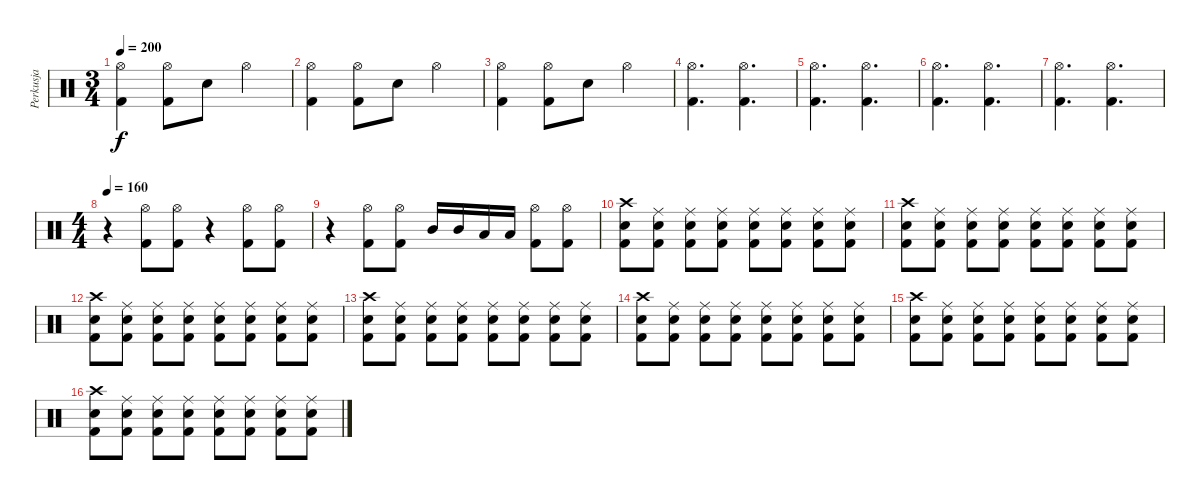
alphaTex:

\track ("Perkusja" "Perkusja") {instrument percussion}
\staff {score}
\articulation defaults
\ts (3 4)
\tempo 200
\clef neutral
\ks c
("Hi-Hat (open)" "Kick (hit) 2").4{dy f} ("Hi-Hat (open)" "Kick (hit) 2").8 "Electric Snare (hit)".8 "Hi-Hat (open)".4 |
("Hi-Hat (open)" "Kick (hit) 2").4 ("Hi-Hat (open)" "Kick (hit) 2").8 "Electric Snare (hit)".8 "Hi-Hat (open)".4 |
("Hi-Hat (open)" "Kick (hit) 2").4 ("Hi-Hat (open)" "Kick (hit) 2").8 "Electric Snare (hit)".8 "Hi-Hat (open)".4 |
("Hi-Hat (open)" "Kick (hit) 2").4{d} ("Hi-Hat (open)" "Kick (hit) 2").4{d} |
("Hi-Hat (open)" "Kick (hit) 2").4{d} ("Hi-Hat (open)" "Kick (hit) 2").4{d} |
("Hi-Hat (open)" "Kick (hit) 2").4{d} ("Hi-Hat (open)" "Kick (hit) 2").4{d} |
("Hi-Hat (open)" "Kick (hit) 2").4{d} ("Hi-Hat (open)" "Kick (hit) 2").4{d} |
\ts (4 4)
\tempo 160
r.4 ("Hi-Hat (open)" "Kick (hit) 2").8 ("Hi-Hat (open)" "Kick (hit) 2").8 r.4 ("Hi-Hat (open)" "Kick (hit) 2").8 ("Hi-Hat (open)" "Kick (hit) 2").8 |
r.4 ("Hi-Hat (open)" "Kick (hit) 2").8 ("Hi-Hat (open)" "Kick (hit) 2").8 "Mid Tom (hit)".16 "Mid Tom (hit)".16 "Low Tom (hit)".16 "Low Tom (hit)".16 ("Hi-Hat (open)" "Kick (hit) 2").8 ("Hi-Hat (open)" "Kick (hit) 2").8 |
("Crash high (hit)" "Electric Snare (hit)" "Kick (hit) 2").8 ("Ride (middle)" "Electric Snare (hit)" "Kick (hit) 2").8 ("Ride (middle)" "Electric Snare (hit)" "Kick (hit) 2").8 ("Ride (middle)" "Electric Snare (hit)" "Kick (hit) 2").8 ("Ride (middle)" "Electric Snare (hit)" "Kick (hit) 2").8 ("Ride (middle)" "Electric Snare (hit)" "Kick (hit) 2").8 ("Ride (middle)" "Electric Snare (hit)" "Kick (hit) 2").8 ("Ride (middle)" "Electric Snare (hit)" "Kick (hit) 2").8 |
("Crash high (hit)" "Electric Snare (hit)" "Kick (hit) 2").8 ("Ride (middle)" "Electric Snare (hit)" "Kick (hit) 2").8 ("Ride (middle)" "Electric Snare (hit)" "Kick (hit) 2").8 ("Ride (middle)" "Electric Snare (hit)" "Kick (hit) 2").8 ("Ride (middle)" "Electric Snare (hit)" "Kick (hit) 2").8 ("Ride (middle)" "Electric Snare (hit)" "Kick (hit) 2").8 ("Ride (middle)" "Electric Snare (hit)" "Kick (hit) 2").8 ("Ride (middle)" "Electric Snare (hit)" "Kick (hit) 2").8 |
("Crash high (hit)" "Electric Snare (hit)" "Kick (hit) 2").8 ("Ride (middle)" "Electric Snare (hit)" "Kick (hit) 2").8 ("Ride (middle)" "Electric Snare (hit)" "Kick (hit) 2").8 ("Ride (middle)" "Electric Snare (hit)" "Kick (hit) 2").8 ("Ride (middle)" "Electric Snare (hit)" "Kick (hit) 2").8 ("Ride (middle)" "Electric Snare (hit)" "Kick (hit) 2").8 ("Ride (middle)" "Electric Snare (hit)" "Kick (hit) 2").8 ("Ride (middle)" "Electric Snare (hit)" "Kick (hit) 2").8 |
("Crash high (hit)" "Electric Snare (hit)" "Kick (hit) 2").8 ("Ride (middle)" "Electric Snare (hit)" "Kick (hit) 2").8 ("Ride (middle)" "Electric Snare (hit)" "Kick (hit) 2").8 ("Ride (middle)" "Electric Snare (hit)" "Kick (hit) 2").8 ("Ride (middle)" "Electric Snare (hit)" "Kick (hit) 2").8 ("Ride (middle)" "Electric Snare (hit)" "Kick (hit) 2").8 ("Ride (middle)" "Electric Snare (hit)" "Kick (hit) 2").8 ("Ride (middle)" "Electric Snare (hit)" "Kick (hit) 2").8 |
("Crash high (hit)" "Electric Snare (hit)" "Kick (hit) 2").8 ("Ride (middle)" "Electric Snare (hit)" "Kick (hit) 2").8 ("Ride (middle)" "Electric Snare (hit)" "Kick (hit) 2").8 ("Ride (middle)" "Electric Snare (hit)" "Kick (hit) 2").8 ("Ride (middle)" "Electric Snare (hit)" "Kick (hit) 2").8 ("Ride (middle)" "Electric Snare (hit)" "Kick (hit) 2").8 ("Ride (middle)" "Electric Snare (hit)" "Kick (hit) 2").8 ("Ride (middle)" "Electric Snare (hit)" "Kick (hit) 2").8 |
("Crash high (hit)" "Electric Snare (hit)" "Kick (hit) 2").8 ("Ride (middle)" "Electric Snare (hit)" "Kick (hit) 2").8 ("Ride (middle)" "Electric Snare (hit)" "Kick (hit) 2").8 ("Ride (middle)" "Electric Snare (hit)" "Kick (hit) 2").8 ("Ride (middle)" "Electric Snare (hit)" "Kick (hit) 2").8 ("Ride (middle)" "Electric Snare (hit)" "Kick (hit) 2").8 ("Ride (middle)" "Electric Snare (hit)" "Kick (hit) 2").8 ("Ride (middle)" "Electric Snare (hit)" "Kick (hit) 2").8 |
("Crash high (hit)" "Electric Snare (hit)" "Kick (hit) 2").8 ("Ride (middle)" "Electric Snare (hit)" "Kick (hit) 2").8 ("Ride (middle)" "Electric Snare (hit)" "Kick (hit) 2").8 ("Ride (middle)" "Electric Snare (hit)" "Kick (hit) 2").8 ("Ride (middle)" "Electric Snare (hit)" "Kick (hit) 2").8 ("Ride (middle)" "Electric Snare (hit)" "Kick (hit) 2").8 ("Ride (middle)" "Electric Snare (hit)" "Kick (hit) 2").8 ("Ride (middle)" "Electric Snare (hit)" "Kick (hit) 2").8
